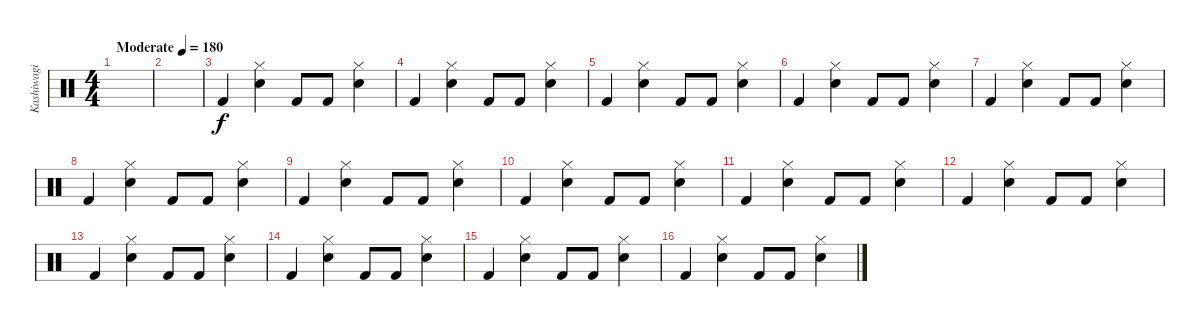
\track ("Kashiwagi Yuki" "Kashiwagi ") {instrument percussion}
\staff {score}
\articulation defaults
\ts (4 4)
\tempo (180 "Moderate")
\clef neutral
\ks c
|
|
"Kick (hit) 2".4 ("Hi-Hat (closed)" "Electric Snare (hit)").4 "Kick (hit) 2".8 "Kick (hit) 2".8 ("Hi-Hat (closed)" "Electric Snare (hit)").4 |
"Kick (hit) 2".4 ("Hi-Hat (closed)" "Electric Snare (hit)").4 "Kick (hit) 2".8 "Kick (hit) 2".8 ("Hi-Hat (closed)" "Electric Snare (hit)").4 |
"Kick (hit) 2".4 ("Hi-Hat (closed)" "Electric Snare (hit)").4 "Kick (hit) 2".8 "Kick (hit) 2".8 ("Hi-Hat (closed)" "Electric Snare (hit)").4 |
"Kick (hit) 2".4 ("Hi-Hat (closed)" "Electric Snare (hit)").4 "Kick (hit) 2".8 "Kick (hit) 2".8 ("Hi-Hat (closed)" "Electric Snare (hit)").4 |
"Kick (hit) 2".4 ("Hi-Hat (closed)" "Electric Snare (hit)").4 "Kick (hit) 2".8 "Kick (hit) 2".8 ("Hi-Hat (closed)" "Electric Snare (hit)").4 |
"Kick (hit) 2".4 ("Hi-Hat (closed)" "Electric Snare (hit)").4 "Kick (hit) 2".8 "Kick (hit) 2".8 ("Hi-Hat (closed)" "Electric Snare (hit)").4 |
"Kick (hit) 2".4 ("Hi-Hat (closed)" "Electric Snare (hit)").4 "Kick (hit) 2".8 "Kick (hit) 2".8 ("Hi-Hat (closed)" "Electric Snare (hit)").4 |
"Kick (hit) 2".4 ("Hi-Hat (closed)" "Electric Snare (hit)").4 "Kick (hit) 2".8 "Kick (hit) 2".8 ("Hi-Hat (closed)" "Electric Snare (hit)").4 |
"Kick (hit) 2".4 ("Hi-Hat (closed)" "Electric Snare (hit)").4 "Kick (hit) 2".8 "Kick (hit) 2".8 ("Hi-Hat (closed)" "Electric Snare (hit)").4 |
"Kick (hit) 2".4 ("Hi-Hat (closed)" "Electric Snare (hit)").4 "Kick (hit) 2".8 "Kick (hit) 2".8 ("Hi-Hat (closed)" "Electric Snare (hit)").4 |
"Kick (hit) 2".4 ("Hi-Hat (closed)" "Electric Snare (hit)").4 "Kick (hit) 2".8 "Kick (hit) 2".8 ("Hi-Hat (closed)" "Electric Snare (hit)").4 |
"Kick (hit) 2".4 ("Hi-Hat (closed)" "Electric Snare (hit)").4 "Kick (hit) 2".8 "Kick (hit) 2".8 ("Hi-Hat (closed)" "Electric Snare (hit)").4 |
"Kick (hit) 2".4 ("Hi-Hat (closed)" "Electric Snare (hit)").4 "Kick (hit) 2".8 "Kick (hit) 2".8 ("Hi-Hat (closed)" "Electric Snare (hit)").4 |
"Kick (hit) 2".4 ("Hi-Hat (closed)" "Electric Snare (hit)").4 "Kick (hit) 2".8 "Kick (hit) 2".8 ("Hi-Hat (closed)" "Electric Snare (hit)").4
